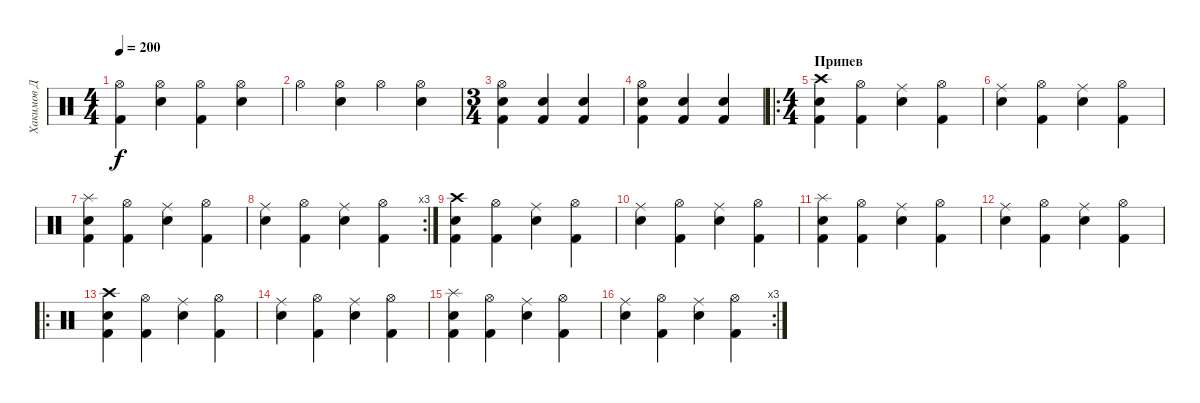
\track ("Хакимов Д" "Хакимов Д") {instrument percussion}
\staff {score}
\articulation defaults
\ts (4 4)
\tempo 200
\clef neutral
\ks c
("Hi-Hat (open)" "Kick (hit) 2").4{dy f} ("Hi-Hat (open)" "Snare (hit) 2").4 ("Hi-Hat (open)" "Kick (hit) 2").4 ("Hi-Hat (open)" "Snare (hit) 2").4 |
"Hi-Hat (open)".4 ("Hi-Hat (open)" "Snare (hit) 2").4 "Hi-Hat (open)".4 ("Hi-Hat (open)" "Snare (hit) 2").4 |
\ts (3 4)
("Kick (hit) 2" "Snare (hit) 2" "Hi-Hat (open)").4 ("Kick (hit) 2" "Snare (hit) 2").4 ("Kick (hit) 2" "Snare (hit) 2").4 |
("Kick (hit) 2" "Snare (hit) 2" "Hi-Hat (open)").4 ("Kick (hit) 2" "Snare (hit) 2").4 ("Kick (hit) 2" "Snare (hit) 2").4 |
\ro
\ts (4 4)
\section ("" "Припев")
("Crash high (hit)" "Snare (hit) 2" "Kick (hit) 2").4 ("Hi-Hat (open)" "Kick (hit) 2").4 ("Ride (middle)" "Snare (hit) 2").4 ("Hi-Hat (open)" "Kick (hit) 2").4 |
("Ride (middle)" "Snare (hit) 2").4 ("Hi-Hat (open)" "Kick (hit) 2").4 ("Ride (middle)" "Snare (hit) 2").4 ("Hi-Hat (open)" "Kick (hit) 2").4 |
("Splash (hit)" "Snare (hit) 2" "Kick (hit) 2").4 ("Hi-Hat (open)" "Kick (hit) 2").4 ("Ride (middle)" "Snare (hit) 2").4 ("Hi-Hat (open)" "Kick (hit) 2").4 |
\rc 3
("Ride (middle)" "Snare (hit) 2").4 ("Hi-Hat (open)" "Kick (hit) 2").4 ("Ride (middle)" "Snare (hit) 2").4 ("Hi-Hat (open)" "Kick (hit) 2").4 |
("Crash high (hit)" "Snare (hit) 2" "Kick (hit) 2").4 ("Hi-Hat (open)" "Kick (hit) 2").4 ("Ride (middle)" "Snare (hit) 2").4 ("Hi-Hat (open)" "Kick (hit) 2").4 |
("Ride (middle)" "Snare (hit) 2").4 ("Hi-Hat (open)" "Kick (hit) 2").4 ("Ride (middle)" "Snare (hit) 2").4 ("Hi-Hat (open)" "Kick (hit) 2").4 |
("Splash (hit)" "Snare (hit) 2" "Kick (hit) 2").4 ("Hi-Hat (open)" "Kick (hit) 2").4 ("Ride (middle)" "Snare (hit) 2").4 ("Hi-Hat (open)" "Kick (hit) 2").4 |
("Ride (middle)" "Snare (hit) 2").4 ("Hi-Hat (open)" "Kick (hit) 2").4 ("Ride (middle)" "Snare (hit) 2").4 ("Hi-Hat (open)" "Kick (hit) 2").4 |
\ro
("Crash high (hit)" "Snare (hit) 2" "Kick (hit) 2").4 ("Hi-Hat (open)" "Kick (hit) 2").4 ("Ride (middle)" "Snare (hit) 2").4 ("Hi-Hat (open)" "Kick (hit) 2").4 |
("Ride (middle)" "Snare (hit) 2").4 ("Hi-Hat (open)" "Kick (hit) 2").4 ("Ride (middle)" "Snare (hit) 2").4 ("Hi-Hat (open)" "Kick (hit) 2").4 |
("Splash (hit)" "Snare (hit) 2" "Kick (hit) 2").4 ("Hi-Hat (open)" "Kick (hit) 2").4 ("Ride (middle)" "Snare (hit) 2").4 ("Hi-Hat (open)" "Kick (hit) 2").4 |
\rc 3
("Ride (middle)" "Snare (hit) 2").4 ("Hi-Hat (open)" "Kick (hit) 2").4 ("Ride (middle)" "Snare (hit) 2").4 ("Hi-Hat (open)" "Kick (hit) 2").4
